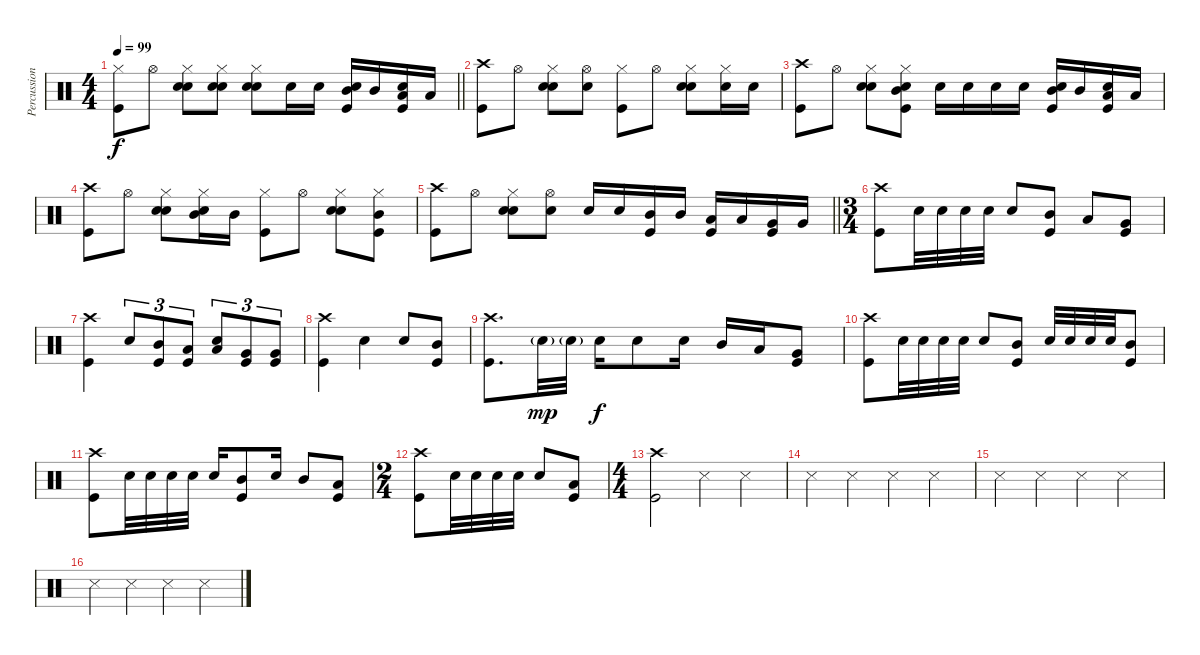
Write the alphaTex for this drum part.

\track ("Percussion" "Percussion") {instrument percussion}
\staff {score}
\articulation defaults
\ts (4 4)
\tempo 99
\clef neutral
\barLineRight lightlight
\ks c
("Hi-Hat (closed)" "Kick (hit)").8{dy f} "Hi-Hat (open)".8 ("Hi-Hat (closed)" "Hand Clap (hit)" "Snare (hit) 2").8 ("Hi-Hat (closed)" "Hand Clap (hit)" "Snare (hit) 2").8 ("Hi-Hat (closed)" "Hand Clap (hit)" "Snare (hit) 2").8 "Snare (hit) 2".16 "Snare (hit) 2".16 ("Hand Clap (hit)" "Mid Tom (hit)" "Kick (hit)").16 "Mid Tom (hit)".16 ("Hand Clap (hit)" "Low Tom (hit)" "Kick (hit)").16 "Low Tom (hit)".16 |
("Crash high (hit)" "Kick (hit)").8 "Hi-Hat (open)".8 ("Hi-Hat (closed)" "Hand Clap (hit)" "Snare (hit) 2").8 ("Hi-Hat (open)" "Hand Clap (hit)").8 ("Hi-Hat (closed)" "Kick (hit)").8 "Hi-Hat (open)".8 ("Hi-Hat (closed)" "Hand Clap (hit)" "Snare (hit) 2").8 ("Hi-Hat (closed)" "Snare (hit) 2").16 "Snare (hit) 2".16 |
("Crash high (hit)" "Kick (hit)").8 "Hi-Hat (open)".8 ("Hi-Hat (closed)" "Hand Clap (hit)" "Snare (hit) 2").8 ("Hi-Hat (closed)" "Hand Clap (hit)" "Mid Tom (hit)" "Kick (hit)").8 "Snare (hit) 2".16 "Snare (hit) 2".16 "Snare (hit) 2".16 "Snare (hit) 2".16 ("Hand Clap (hit)" "Mid Tom (hit)" "Kick (hit)").16 "Mid Tom (hit)".16 ("Hand Clap (hit)" "Low Tom (hit)" "Kick (hit)").16 "Low Tom (hit)".16 |
("Crash high (hit)" "Kick (hit)").8 "Hi-Hat (open)".8 ("Hi-Hat (closed)" "Hand Clap (hit)" "Snare (hit) 2").8 ("Hi-Hat (closed)" "Mid Tom (hit)" "Hand Clap (hit)").16 "Mid Tom (hit)".16 ("Hi-Hat (closed)" "Kick (hit)").8 "Hi-Hat (open)".8 ("Hi-Hat (closed)" "Hand Clap (hit)" "Snare (hit) 2").8 ("Hi-Hat (closed)" "Mid Tom (hit)" "Kick (hit)").8 |
\barLineRight lightlight
("Crash high (hit)" "Kick (hit)").8 "Hi-Hat (open)".8 ("Hi-Hat (closed)" "Hand Clap (hit)" "Snare (hit) 2").8 ("Hi-Hat (open)" "Hand Clap (hit)").8 "Snare (hit) 2".16 "Snare (hit) 2".16 ("Mid Tom (hit)" "Kick (hit)").16 "Mid Tom (hit)".16 ("Low Tom (hit)" "Kick (hit)").16 "Low Tom (hit)".16 ("Very Low Tom (hit)" "Kick (hit)").16 "Very Low Tom (hit)".16 |
\ts (3 4)
("Crash high (hit)" "Kick (hit)").8 "Snare (hit) 2".32 "Snare (hit) 2".32 "Snare (hit) 2".32 "Snare (hit) 2".32 "Snare (hit) 2".8 ("Mid Tom (hit)" "Kick (hit)").8 "Low Tom (hit)".8 ("Very Low Tom (hit)" "Kick (hit)").8 |
("Crash high (hit)" "Kick (hit)").4 "Snare (hit) 2".8{tu (3 2)} ("Mid Tom (hit)" "Kick (hit)").8{tu (3 2)} ("Low Tom (hit)" "Kick (hit)").8{tu (3 2)} ("Low Tom (hit)" "Snare (hit) 2").8{tu (3 2)} ("Very Low Tom (hit)" "Kick (hit)").8{tu (3 2)} ("Very Low Tom (hit)" "Kick (hit)").8{tu (3 2)} |
("Crash high (hit)" "Kick (hit)").4 "Snare (hit) 2".4 "Snare (hit) 2".8 ("Mid Tom (hit)" "Kick (hit)").8 |
("Crash high (hit)" "Kick (hit)").8{d} "Snare (hit) 2"{g}.32{dy mp} "Snare (hit) 2"{g}.32 "Snare (hit) 2".16{dy f} "Snare (hit) 2".8 "Snare (hit) 2".16 "Mid Tom (hit)".16 "Low Tom (hit)".16 ("Very Low Tom (hit)" "Kick (hit)").8 |
("Crash high (hit)" "Kick (hit)").8 "Snare (hit) 2".32 "Snare (hit) 2".32 "Snare (hit) 2".32 "Snare (hit) 2".32 "Snare (hit) 2".8 ("Mid Tom (hit)" "Kick (hit)").8 "Snare (hit) 2".32 "Snare (hit) 2".32 "Snare (hit) 2".32 "Snare (hit) 2".32 ("Mid Tom (hit)" "Kick (hit)").8 |
("Crash high (hit)" "Kick (hit)").8 "Snare (hit) 2".32 "Snare (hit) 2".32 "Snare (hit) 2".32 "Snare (hit) 2".32 "Snare (hit) 2".16 ("Mid Tom (hit)" "Kick (hit)").8 "Snare (hit) 2".16 "Mid Tom (hit)".8 ("Low Tom (hit)" "Kick (hit)").8 |
\ts (2 4)
("Crash high (hit)" "Kick (hit)").8 "Snare (hit) 2".32 "Snare (hit) 2".32 "Snare (hit) 2".32 "Snare (hit) 2".32 "Snare (hit) 2".8 ("Low Tom (hit)" "Kick (hit)").8 |
\ts (4 4)
("Crash high (hit)" "Kick (hit)").2 "Snare (side stick) 3".4 "Snare (side stick) 3".4 |
"Snare (side stick) 3".4 "Snare (side stick) 3".4 "Snare (side stick) 3".4 "Snare (side stick) 3".4 |
"Snare (side stick) 3".4 "Snare (side stick) 3".4 "Snare (side stick) 3".4 "Snare (side stick) 3".4 |
"Snare (side stick) 3".4 "Snare (side stick) 3".4 "Snare (side stick) 3".4 "Snare (side stick) 3".4
